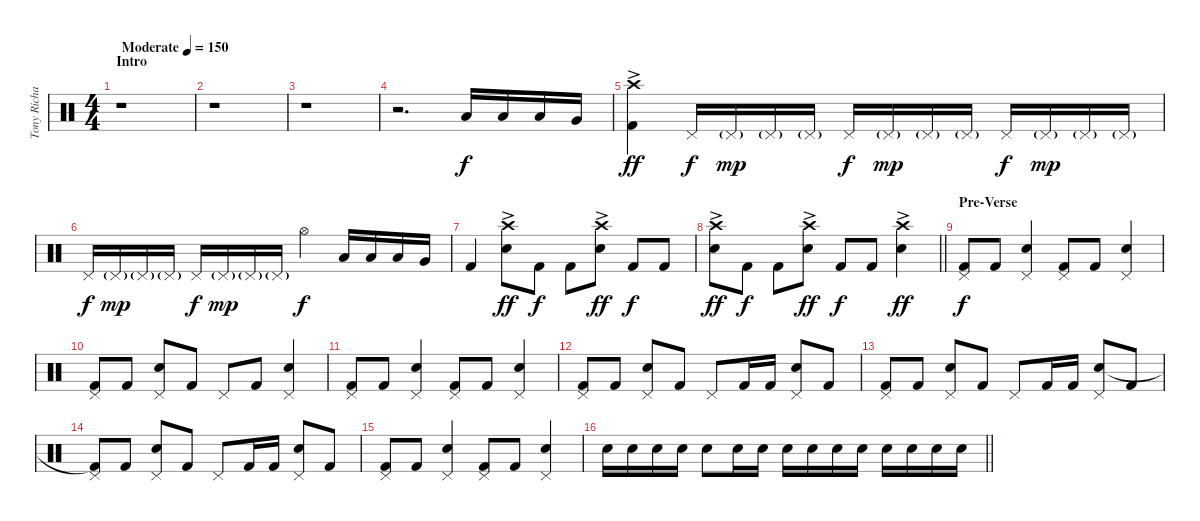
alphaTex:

\track ("Tony Richards (drums)" "Tony Richa") {instrument percussion}
\staff {score}
\articulation defaults
\ts (4 4)
\section ("" "Intro")
\tempo (150 "Moderate")
\clef neutral
\ks c
r.1{dy f} |
r.1 |
r.1 |
r.2{d} "Low Tom (hit)".16 "Low Tom (hit)".16 "Low Tom (hit)".16 "Very Low Tom (hit)".16 |
("Crash high (hit)"{ac} "Kick (hit) 2").4{dy ff} "Pedal Hi-Hat (hit)".16{dy f} "Pedal Hi-Hat (hit)"{g}.16{dy mp} "Pedal Hi-Hat (hit)"{g}.16 "Pedal Hi-Hat (hit)"{g}.16 "Pedal Hi-Hat (hit)".16{dy f} "Pedal Hi-Hat (hit)"{g}.16{dy mp} "Pedal Hi-Hat (hit)"{g}.16 "Pedal Hi-Hat (hit)"{g}.16 "Pedal Hi-Hat (hit)".16{dy f} "Pedal Hi-Hat (hit)"{g}.16{dy mp} "Pedal Hi-Hat (hit)"{g}.16 "Pedal Hi-Hat (hit)"{g}.16 |
"Pedal Hi-Hat (hit)".16{dy f} "Pedal Hi-Hat (hit)"{g}.16{dy mp} "Pedal Hi-Hat (hit)"{g}.16 "Pedal Hi-Hat (hit)"{g}.16 "Pedal Hi-Hat (hit)".16{dy f} "Pedal Hi-Hat (hit)"{g}.16{dy mp} "Pedal Hi-Hat (hit)"{g}.16 "Pedal Hi-Hat (hit)"{g}.16 "Hi-Hat (open)".4{dy f} "Low Tom (hit)".16 "Low Tom (hit)".16 "Low Tom (hit)".16 "Very Low Tom (hit)".16 |
"Kick (hit) 2".4 ("Crash high (hit)" "Snare (hit) 2"{ac}).8{dy ff} "Kick (hit) 2".8{dy f} "Kick (hit) 2".8 ("Crash high (hit)" "Snare (hit) 2"{ac}).8{dy ff} "Kick (hit) 2".8{dy f} "Kick (hit) 2".8 |
\barLineRight lightlight
("Crash high (hit)" "Snare (hit) 2"{ac}).8{dy ff} "Kick (hit) 2".8{dy f} "Kick (hit) 2".8 ("Crash high (hit)" "Snare (hit) 2"{ac}).8{dy ff} "Kick (hit) 2".8{dy f} "Kick (hit) 2".8 ("Crash high (hit)" "Snare (hit) 2"{ac}).4{dy ff} |
\section ("" "Pre-Verse")
("Pedal Hi-Hat (hit)" "Kick (hit) 2").8{dy f} "Kick (hit) 2".8 ("Pedal Hi-Hat (hit)" "Snare (hit) 2").4 ("Pedal Hi-Hat (hit)" "Kick (hit) 2").8 "Kick (hit) 2".8 ("Pedal Hi-Hat (hit)" "Snare (hit) 2").4 |
("Pedal Hi-Hat (hit)" "Kick (hit) 2").8 "Kick (hit) 2".8 ("Pedal Hi-Hat (hit)" "Snare (hit) 2").8 "Kick (hit) 2".8 "Pedal Hi-Hat (hit)".8 "Kick (hit) 2".8 ("Pedal Hi-Hat (hit)" "Snare (hit) 2").4 |
("Pedal Hi-Hat (hit)" "Kick (hit) 2").8 "Kick (hit) 2".8 ("Pedal Hi-Hat (hit)" "Snare (hit) 2").4 ("Pedal Hi-Hat (hit)" "Kick (hit) 2").8 "Kick (hit) 2".8 ("Pedal Hi-Hat (hit)" "Snare (hit) 2").4 |
("Pedal Hi-Hat (hit)" "Kick (hit) 2").8 "Kick (hit) 2".8 ("Pedal Hi-Hat (hit)" "Snare (hit) 2").8 "Kick (hit) 2".8 "Pedal Hi-Hat (hit)".8 "Kick (hit) 2".16 "Kick (hit) 2".16 ("Pedal Hi-Hat (hit)" "Snare (hit) 2").8 "Kick (hit) 2".8 |
("Pedal Hi-Hat (hit)" "Kick (hit) 2").8 "Kick (hit) 2".8 ("Pedal Hi-Hat (hit)" "Snare (hit) 2").8 "Kick (hit) 2".8 "Pedal Hi-Hat (hit)".8 "Kick (hit) 2".16 "Kick (hit) 2".16 ("Pedal Hi-Hat (hit)" "Snare (hit) 2").8 "Kick (hit) 2".8 |
("Pedal Hi-Hat (hit)" "Kick (hit) 2"{t}).8 "Kick (hit) 2".8 ("Pedal Hi-Hat (hit)" "Snare (hit) 2").8 "Kick (hit) 2".8 "Pedal Hi-Hat (hit)".8 "Kick (hit) 2".16 "Kick (hit) 2".16 ("Pedal Hi-Hat (hit)" "Snare (hit) 2").8 "Kick (hit) 2".8 |
("Pedal Hi-Hat (hit)" "Kick (hit) 2").8 "Kick (hit) 2".8 ("Pedal Hi-Hat (hit)" "Snare (hit) 2").4 ("Pedal Hi-Hat (hit)" "Kick (hit) 2").8 "Kick (hit) 2".8 ("Pedal Hi-Hat (hit)" "Snare (hit) 2").4 |
\barLineRight lightlight "Snare (hit) 2".16 "Snare (hit) 2".16 "Snare (hit) 2".16 "Snare (hit) 2".16 "Snare (hit) 2".8 "Snare (hit) 2".16 "Snare (hit) 2".16 "Snare (hit) 2".16 "Snare (hit) 2".16 "Snare (hit) 2".16 "Snare (hit) 2".16 "Snare (hit) 2".16 "Snare (hit) 2".16 "Snare (hit) 2".16 "Snare (hit) 2".16
